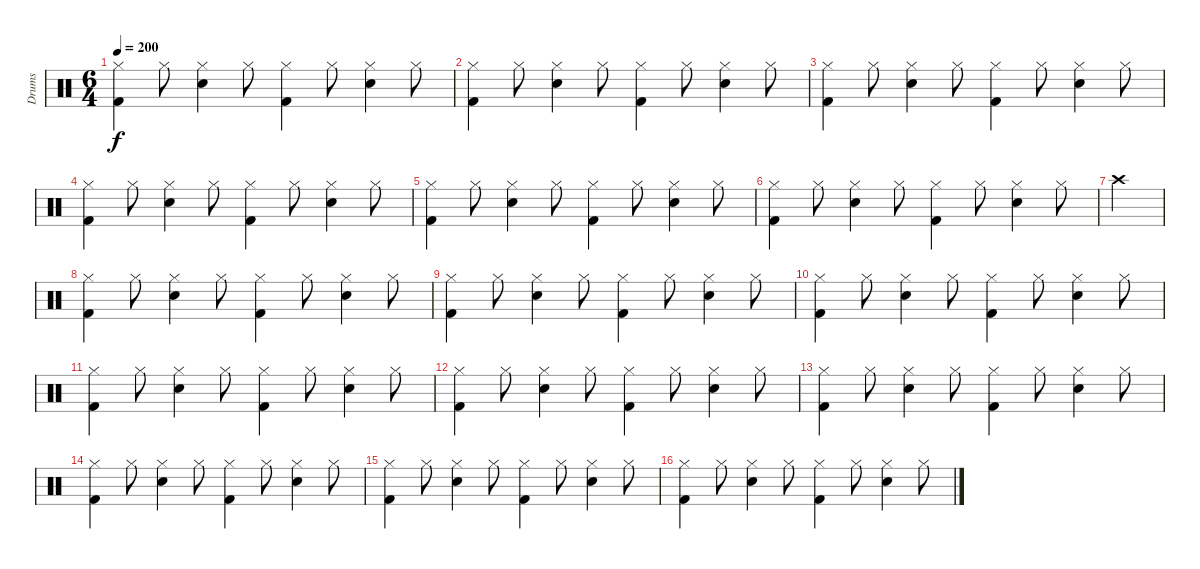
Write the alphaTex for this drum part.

\track ("Drums" "Drums") {instrument percussion}
\staff {score}
\articulation defaults
\ts (6 4)
\tempo 200
\clef neutral
\ks c
("Hi-Hat (closed)" "Kick (hit) 2").4{dy f} "Hi-Hat (closed)".8 ("Hi-Hat (closed)" "Snare (hit) 2").4 "Hi-Hat (closed)".8 ("Hi-Hat (closed)" "Kick (hit) 2").4 "Hi-Hat (closed)".8 ("Hi-Hat (closed)" "Snare (hit) 2").4 "Hi-Hat (closed)".8 |
("Hi-Hat (closed)" "Kick (hit) 2").4 "Hi-Hat (closed)".8 ("Hi-Hat (closed)" "Snare (hit) 2").4 "Hi-Hat (closed)".8 ("Hi-Hat (closed)" "Kick (hit) 2").4 "Hi-Hat (closed)".8 ("Hi-Hat (closed)" "Snare (hit) 2").4 "Hi-Hat (closed)".8 |
("Hi-Hat (closed)" "Kick (hit) 2").4 "Hi-Hat (closed)".8 ("Hi-Hat (closed)" "Snare (hit) 2").4 "Hi-Hat (closed)".8 ("Hi-Hat (closed)" "Kick (hit) 2").4 "Hi-Hat (closed)".8 ("Hi-Hat (closed)" "Snare (hit) 2").4 "Hi-Hat (closed)".8 |
("Hi-Hat (closed)" "Kick (hit) 2").4 "Hi-Hat (closed)".8 ("Hi-Hat (closed)" "Snare (hit) 2").4 "Hi-Hat (closed)".8 ("Hi-Hat (closed)" "Kick (hit) 2").4 "Hi-Hat (closed)".8 ("Hi-Hat (closed)" "Snare (hit) 2").4 "Hi-Hat (closed)".8 |
("Hi-Hat (closed)" "Kick (hit) 2").4 "Hi-Hat (closed)".8 ("Hi-Hat (closed)" "Snare (hit) 2").4 "Hi-Hat (closed)".8 ("Hi-Hat (closed)" "Kick (hit) 2").4 "Hi-Hat (closed)".8 ("Hi-Hat (closed)" "Snare (hit) 2").4 "Hi-Hat (closed)".8 |
("Hi-Hat (closed)" "Kick (hit) 2").4 "Hi-Hat (closed)".8 ("Hi-Hat (closed)" "Snare (hit) 2").4 "Hi-Hat (closed)".8 ("Hi-Hat (closed)" "Kick (hit) 2").4 "Hi-Hat (closed)".8 ("Hi-Hat (closed)" "Snare (hit) 2").4 "Hi-Hat (closed)".8 |
"Crash high (hit)".4 |
("Hi-Hat (closed)" "Kick (hit) 2").4 "Hi-Hat (closed)".8 ("Hi-Hat (closed)" "Snare (hit) 2").4 "Hi-Hat (closed)".8 ("Hi-Hat (closed)" "Kick (hit) 2").4 "Hi-Hat (closed)".8 ("Hi-Hat (closed)" "Snare (hit) 2").4 "Hi-Hat (closed)".8 |
("Hi-Hat (closed)" "Kick (hit) 2").4 "Hi-Hat (closed)".8 ("Hi-Hat (closed)" "Snare (hit) 2").4 "Hi-Hat (closed)".8 ("Hi-Hat (closed)" "Kick (hit) 2").4 "Hi-Hat (closed)".8 ("Hi-Hat (closed)" "Snare (hit) 2").4 "Hi-Hat (closed)".8 |
("Hi-Hat (closed)" "Kick (hit) 2").4 "Hi-Hat (closed)".8 ("Hi-Hat (closed)" "Snare (hit) 2").4 "Hi-Hat (closed)".8 ("Hi-Hat (closed)" "Kick (hit) 2").4 "Hi-Hat (closed)".8 ("Hi-Hat (closed)" "Snare (hit) 2").4 "Hi-Hat (closed)".8 |
("Hi-Hat (closed)" "Kick (hit) 2").4 "Hi-Hat (closed)".8 ("Hi-Hat (closed)" "Snare (hit) 2").4 "Hi-Hat (closed)".8 ("Hi-Hat (closed)" "Kick (hit) 2").4 "Hi-Hat (closed)".8 ("Hi-Hat (closed)" "Snare (hit) 2").4 "Hi-Hat (closed)".8 |
("Hi-Hat (closed)" "Kick (hit) 2").4 "Hi-Hat (closed)".8 ("Hi-Hat (closed)" "Snare (hit) 2").4 "Hi-Hat (closed)".8 ("Hi-Hat (closed)" "Kick (hit) 2").4 "Hi-Hat (closed)".8 ("Hi-Hat (closed)" "Snare (hit) 2").4 "Hi-Hat (closed)".8 |
("Hi-Hat (closed)" "Kick (hit) 2").4 "Hi-Hat (closed)".8 ("Hi-Hat (closed)" "Snare (hit) 2").4 "Hi-Hat (closed)".8 ("Hi-Hat (closed)" "Kick (hit) 2").4 "Hi-Hat (closed)".8 ("Hi-Hat (closed)" "Snare (hit) 2").4 "Hi-Hat (closed)".8 |
("Hi-Hat (closed)" "Kick (hit) 2").4 "Hi-Hat (closed)".8 ("Hi-Hat (closed)" "Snare (hit) 2").4 "Hi-Hat (closed)".8 ("Hi-Hat (closed)" "Kick (hit) 2").4 "Hi-Hat (closed)".8 ("Hi-Hat (closed)" "Snare (hit) 2").4 "Hi-Hat (closed)".8 |
("Hi-Hat (closed)" "Kick (hit) 2").4 "Hi-Hat (closed)".8 ("Hi-Hat (closed)" "Snare (hit) 2").4 "Hi-Hat (closed)".8 ("Hi-Hat (closed)" "Kick (hit) 2").4 "Hi-Hat (closed)".8 ("Hi-Hat (closed)" "Snare (hit) 2").4 "Hi-Hat (closed)".8 |
("Hi-Hat (closed)" "Kick (hit) 2").4 "Hi-Hat (closed)".8 ("Hi-Hat (closed)" "Snare (hit) 2").4 "Hi-Hat (closed)".8 ("Hi-Hat (closed)" "Kick (hit) 2").4 "Hi-Hat (closed)".8 ("Hi-Hat (closed)" "Snare (hit) 2").4 "Hi-Hat (closed)".8
